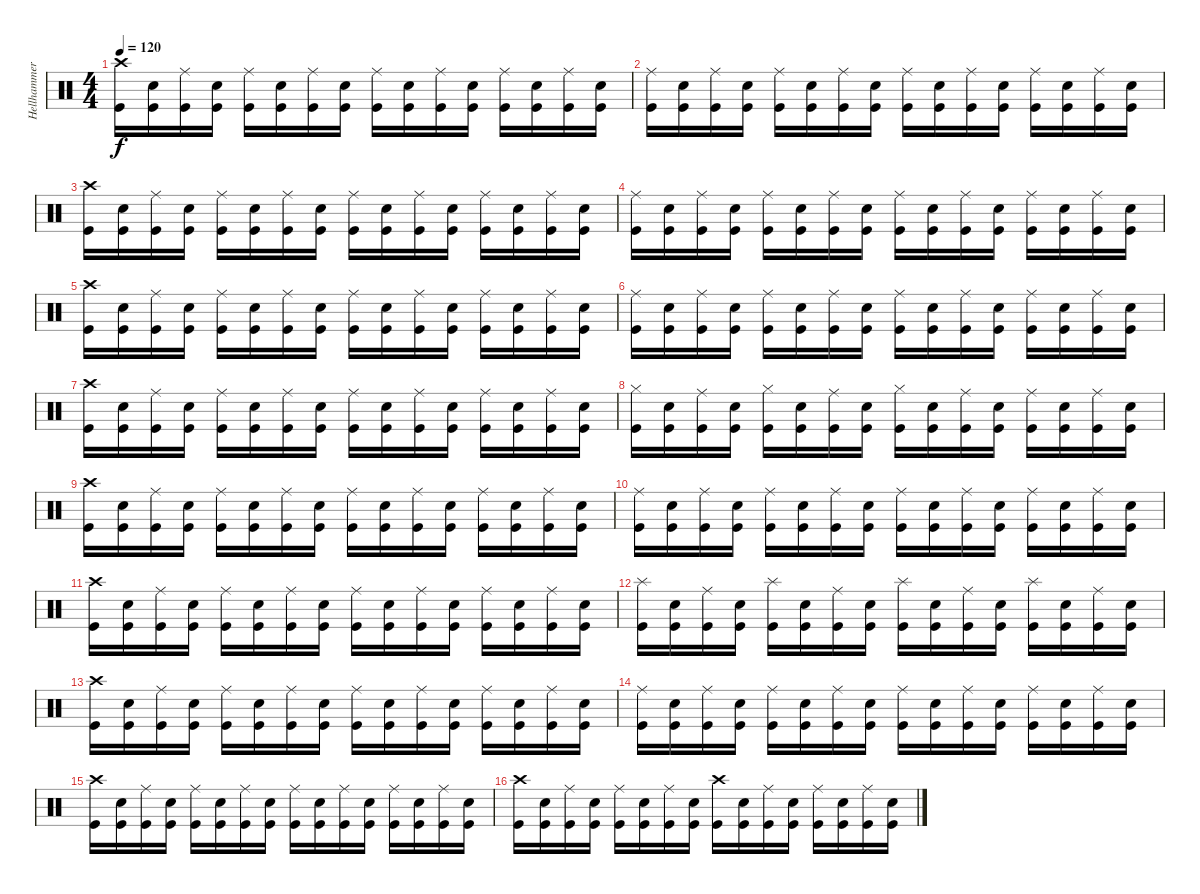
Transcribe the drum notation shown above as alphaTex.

\track ("Hellhammer" "Hellhammer") {instrument percussion}
\staff {score}
\articulation defaults
\ts (4 4)
\tempo 120
\tempo 170
\tempo 120
\clef neutral
\ks c
("Crash high (hit)" "Kick (hit)").16{dy f} ("Electric Snare (hit)" "Kick (hit)").16 ("Ride (middle)" "Kick (hit)").16 ("Electric Snare (hit)" "Kick (hit)").16 ("Ride (middle)" "Kick (hit)").16 ("Electric Snare (hit)" "Kick (hit)").16 ("Ride (middle)" "Kick (hit)").16 ("Electric Snare (hit)" "Kick (hit)").16 ("Ride (middle)" "Kick (hit)").16 ("Electric Snare (hit)" "Kick (hit)").16 ("Ride (middle)" "Kick (hit)").16 ("Electric Snare (hit)" "Kick (hit)").16 ("Ride (middle)" "Kick (hit)").16 ("Electric Snare (hit)" "Kick (hit)").16 ("Ride (middle)" "Kick (hit)").16 ("Electric Snare (hit)" "Kick (hit)").16 |
("Ride (middle)" "Kick (hit)").16 ("Electric Snare (hit)" "Kick (hit)").16 ("Ride (middle)" "Kick (hit)").16 ("Electric Snare (hit)" "Kick (hit)").16 ("Ride (middle)" "Kick (hit)").16 ("Electric Snare (hit)" "Kick (hit)").16 ("Ride (middle)" "Kick (hit)").16 ("Electric Snare (hit)" "Kick (hit)").16 ("Ride (middle)" "Kick (hit)").16 ("Electric Snare (hit)" "Kick (hit)").16 ("Ride (middle)" "Kick (hit)").16 ("Electric Snare (hit)" "Kick (hit)").16 ("Ride (middle)" "Kick (hit)").16 ("Electric Snare (hit)" "Kick (hit)").16 ("Ride (middle)" "Kick (hit)").16 ("Electric Snare (hit)" "Kick (hit)").16 |
("Crash high (hit)" "Kick (hit)").16 ("Electric Snare (hit)" "Kick (hit)").16 ("Ride (middle)" "Kick (hit)").16 ("Electric Snare (hit)" "Kick (hit)").16 ("Ride (middle)" "Kick (hit)").16 ("Electric Snare (hit)" "Kick (hit)").16 ("Ride (middle)" "Kick (hit)").16 ("Electric Snare (hit)" "Kick (hit)").16 ("Ride (middle)" "Kick (hit)").16 ("Electric Snare (hit)" "Kick (hit)").16 ("Ride (middle)" "Kick (hit)").16 ("Electric Snare (hit)" "Kick (hit)").16 ("Ride (middle)" "Kick (hit)").16 ("Electric Snare (hit)" "Kick (hit)").16 ("Ride (middle)" "Kick (hit)").16 ("Electric Snare (hit)" "Kick (hit)").16 |
("Ride (middle)" "Kick (hit)").16 ("Electric Snare (hit)" "Kick (hit)").16 ("Ride (middle)" "Kick (hit)").16 ("Electric Snare (hit)" "Kick (hit)").16 ("Ride (middle)" "Kick (hit)").16 ("Electric Snare (hit)" "Kick (hit)").16 ("Ride (middle)" "Kick (hit)").16 ("Electric Snare (hit)" "Kick (hit)").16 ("Ride (middle)" "Kick (hit)").16 ("Electric Snare (hit)" "Kick (hit)").16 ("Ride (middle)" "Kick (hit)").16 ("Electric Snare (hit)" "Kick (hit)").16 ("Ride (middle)" "Kick (hit)").16 ("Electric Snare (hit)" "Kick (hit)").16 ("Ride (middle)" "Kick (hit)").16 ("Electric Snare (hit)" "Kick (hit)").16 |
("Crash high (hit)" "Kick (hit)").16 ("Electric Snare (hit)" "Kick (hit)").16 ("Ride (middle)" "Kick (hit)").16 ("Electric Snare (hit)" "Kick (hit)").16 ("Ride (middle)" "Kick (hit)").16 ("Electric Snare (hit)" "Kick (hit)").16 ("Ride (middle)" "Kick (hit)").16 ("Electric Snare (hit)" "Kick (hit)").16 ("Ride (middle)" "Kick (hit)").16 ("Electric Snare (hit)" "Kick (hit)").16 ("Ride (middle)" "Kick (hit)").16 ("Electric Snare (hit)" "Kick (hit)").16 ("Ride (middle)" "Kick (hit)").16 ("Electric Snare (hit)" "Kick (hit)").16 ("Ride (middle)" "Kick (hit)").16 ("Electric Snare (hit)" "Kick (hit)").16 |
("Ride (middle)" "Kick (hit)").16 ("Electric Snare (hit)" "Kick (hit)").16 ("Ride (middle)" "Kick (hit)").16 ("Electric Snare (hit)" "Kick (hit)").16 ("Ride (middle)" "Kick (hit)").16 ("Electric Snare (hit)" "Kick (hit)").16 ("Ride (middle)" "Kick (hit)").16 ("Electric Snare (hit)" "Kick (hit)").16 ("Ride (middle)" "Kick (hit)").16 ("Electric Snare (hit)" "Kick (hit)").16 ("Ride (middle)" "Kick (hit)").16 ("Electric Snare (hit)" "Kick (hit)").16 ("Ride (middle)" "Kick (hit)").16 ("Electric Snare (hit)" "Kick (hit)").16 ("Ride (middle)" "Kick (hit)").16 ("Electric Snare (hit)" "Kick (hit)").16 |
("Crash high (hit)" "Kick (hit)").16 ("Electric Snare (hit)" "Kick (hit)").16 ("Ride (middle)" "Kick (hit)").16 ("Electric Snare (hit)" "Kick (hit)").16 ("Ride (middle)" "Kick (hit)").16 ("Electric Snare (hit)" "Kick (hit)").16 ("Ride (middle)" "Kick (hit)").16 ("Electric Snare (hit)" "Kick (hit)").16 ("Ride (middle)" "Kick (hit)").16 ("Electric Snare (hit)" "Kick (hit)").16 ("Ride (middle)" "Kick (hit)").16 ("Electric Snare (hit)" "Kick (hit)").16 ("Ride (middle)" "Kick (hit)").16 ("Electric Snare (hit)" "Kick (hit)").16 ("Ride (middle)" "Kick (hit)").16 ("Electric Snare (hit)" "Kick (hit)").16 |
("Hi-Hat (closed)" "Kick (hit)").16 ("Electric Snare (hit)" "Kick (hit)").16 ("Ride (middle)" "Kick (hit)").16 ("Electric Snare (hit)" "Kick (hit)").16 ("Hi-Hat (closed)" "Kick (hit)").16 ("Electric Snare (hit)" "Kick (hit)").16 ("Ride (middle)" "Kick (hit)").16 ("Electric Snare (hit)" "Kick (hit)").16 ("Hi-Hat (closed)" "Kick (hit)").16 ("Electric Snare (hit)" "Kick (hit)").16 ("Ride (middle)" "Kick (hit)").16 ("Electric Snare (hit)" "Kick (hit)").16 ("Ride (middle)" "Kick (hit)").16 ("Electric Snare (hit)" "Kick (hit)").16 ("Ride (middle)" "Kick (hit)").16 ("Electric Snare (hit)" "Kick (hit)").16 |
("Crash high (hit)" "Kick (hit)").16 ("Electric Snare (hit)" "Kick (hit)").16 ("Ride (middle)" "Kick (hit)").16 ("Electric Snare (hit)" "Kick (hit)").16 ("Ride (middle)" "Kick (hit)").16 ("Electric Snare (hit)" "Kick (hit)").16 ("Ride (middle)" "Kick (hit)").16 ("Electric Snare (hit)" "Kick (hit)").16 ("Ride (middle)" "Kick (hit)").16 ("Electric Snare (hit)" "Kick (hit)").16 ("Ride (middle)" "Kick (hit)").16 ("Electric Snare (hit)" "Kick (hit)").16 ("Ride (middle)" "Kick (hit)").16 ("Electric Snare (hit)" "Kick (hit)").16 ("Ride (middle)" "Kick (hit)").16 ("Electric Snare (hit)" "Kick (hit)").16 |
("Ride (middle)" "Kick (hit)").16 ("Electric Snare (hit)" "Kick (hit)").16 ("Ride (middle)" "Kick (hit)").16 ("Electric Snare (hit)" "Kick (hit)").16 ("Ride (middle)" "Kick (hit)").16 ("Electric Snare (hit)" "Kick (hit)").16 ("Ride (middle)" "Kick (hit)").16 ("Electric Snare (hit)" "Kick (hit)").16 ("Ride (middle)" "Kick (hit)").16 ("Electric Snare (hit)" "Kick (hit)").16 ("Ride (middle)" "Kick (hit)").16 ("Electric Snare (hit)" "Kick (hit)").16 ("Ride (middle)" "Kick (hit)").16 ("Electric Snare (hit)" "Kick (hit)").16 ("Ride (middle)" "Kick (hit)").16 ("Electric Snare (hit)" "Kick (hit)").16 |
("Crash high (hit)" "Kick (hit)").16 ("Electric Snare (hit)" "Kick (hit)").16 ("Ride (middle)" "Kick (hit)").16 ("Electric Snare (hit)" "Kick (hit)").16 ("Ride (middle)" "Kick (hit)").16 ("Electric Snare (hit)" "Kick (hit)").16 ("Ride (middle)" "Kick (hit)").16 ("Electric Snare (hit)" "Kick (hit)").16 ("Ride (middle)" "Kick (hit)").16 ("Electric Snare (hit)" "Kick (hit)").16 ("Ride (middle)" "Kick (hit)").16 ("Electric Snare (hit)" "Kick (hit)").16 ("Ride (middle)" "Kick (hit)").16 ("Electric Snare (hit)" "Kick (hit)").16 ("Ride (middle)" "Kick (hit)").16 ("Electric Snare (hit)" "Kick (hit)").16 |
("Splash (hit)" "Kick (hit)").16 ("Electric Snare (hit)" "Kick (hit)").16 ("Ride (middle)" "Kick (hit)").16 ("Electric Snare (hit)" "Kick (hit)").16 ("Splash (hit)" "Kick (hit)").16 ("Electric Snare (hit)" "Kick (hit)").16 ("Ride (middle)" "Kick (hit)").16 ("Electric Snare (hit)" "Kick (hit)").16 ("Splash (hit)" "Kick (hit)").16 ("Electric Snare (hit)" "Kick (hit)").16 ("Ride (middle)" "Kick (hit)").16 ("Electric Snare (hit)" "Kick (hit)").16 ("Splash (hit)" "Kick (hit)").16 ("Electric Snare (hit)" "Kick (hit)").16 ("Ride (middle)" "Kick (hit)").16 ("Electric Snare (hit)" "Kick (hit)").16 |
("Crash high (hit)" "Kick (hit)").16 ("Electric Snare (hit)" "Kick (hit)").16 ("Ride (middle)" "Kick (hit)").16 ("Electric Snare (hit)" "Kick (hit)").16 ("Ride (middle)" "Kick (hit)").16 ("Electric Snare (hit)" "Kick (hit)").16 ("Ride (middle)" "Kick (hit)").16 ("Electric Snare (hit)" "Kick (hit)").16 ("Ride (middle)" "Kick (hit)").16 ("Electric Snare (hit)" "Kick (hit)").16 ("Ride (middle)" "Kick (hit)").16 ("Electric Snare (hit)" "Kick (hit)").16 ("Ride (middle)" "Kick (hit)").16 ("Electric Snare (hit)" "Kick (hit)").16 ("Ride (middle)" "Kick (hit)").16 ("Electric Snare (hit)" "Kick (hit)").16 |
("Ride (middle)" "Kick (hit)").16 ("Electric Snare (hit)" "Kick (hit)").16 ("Ride (middle)" "Kick (hit)").16 ("Electric Snare (hit)" "Kick (hit)").16 ("Ride (middle)" "Kick (hit)").16 ("Electric Snare (hit)" "Kick (hit)").16 ("Ride (middle)" "Kick (hit)").16 ("Electric Snare (hit)" "Kick (hit)").16 ("Ride (middle)" "Kick (hit)").16 ("Electric Snare (hit)" "Kick (hit)").16 ("Ride (middle)" "Kick (hit)").16 ("Electric Snare (hit)" "Kick (hit)").16 ("Ride (middle)" "Kick (hit)").16 ("Electric Snare (hit)" "Kick (hit)").16 ("Ride (middle)" "Kick (hit)").16 ("Electric Snare (hit)" "Kick (hit)").16 |
("Crash high (hit)" "Kick (hit)").16 ("Electric Snare (hit)" "Kick (hit)").16 ("Ride (middle)" "Kick (hit)").16 ("Electric Snare (hit)" "Kick (hit)").16 ("Ride (middle)" "Kick (hit)").16 ("Electric Snare (hit)" "Kick (hit)").16 ("Ride (middle)" "Kick (hit)").16 ("Electric Snare (hit)" "Kick (hit)").16 ("Ride (middle)" "Kick (hit)").16 ("Electric Snare (hit)" "Kick (hit)").16 ("Ride (middle)" "Kick (hit)").16 ("Electric Snare (hit)" "Kick (hit)").16 ("Ride (middle)" "Kick (hit)").16 ("Electric Snare (hit)" "Kick (hit)").16 ("Ride (middle)" "Kick (hit)").16 ("Electric Snare (hit)" "Kick (hit)").16 |
("Crash high (hit)" "Kick (hit)").16 ("Electric Snare (hit)" "Kick (hit)").16 ("Ride (middle)" "Kick (hit)").16 ("Electric Snare (hit)" "Kick (hit)").16 ("Ride (middle)" "Kick (hit)").16 ("Electric Snare (hit)" "Kick (hit)").16 ("Ride (middle)" "Kick (hit)").16 ("Electric Snare (hit)" "Kick (hit)").16 ("Crash high (hit)" "Kick (hit)").16 ("Electric Snare (hit)" "Kick (hit)").16 ("Ride (middle)" "Kick (hit)").16 ("Electric Snare (hit)" "Kick (hit)").16 ("Ride (middle)" "Kick (hit)").16 ("Electric Snare (hit)" "Kick (hit)").16 ("Ride (middle)" "Kick (hit)").16 ("Electric Snare (hit)" "Kick (hit)").16
